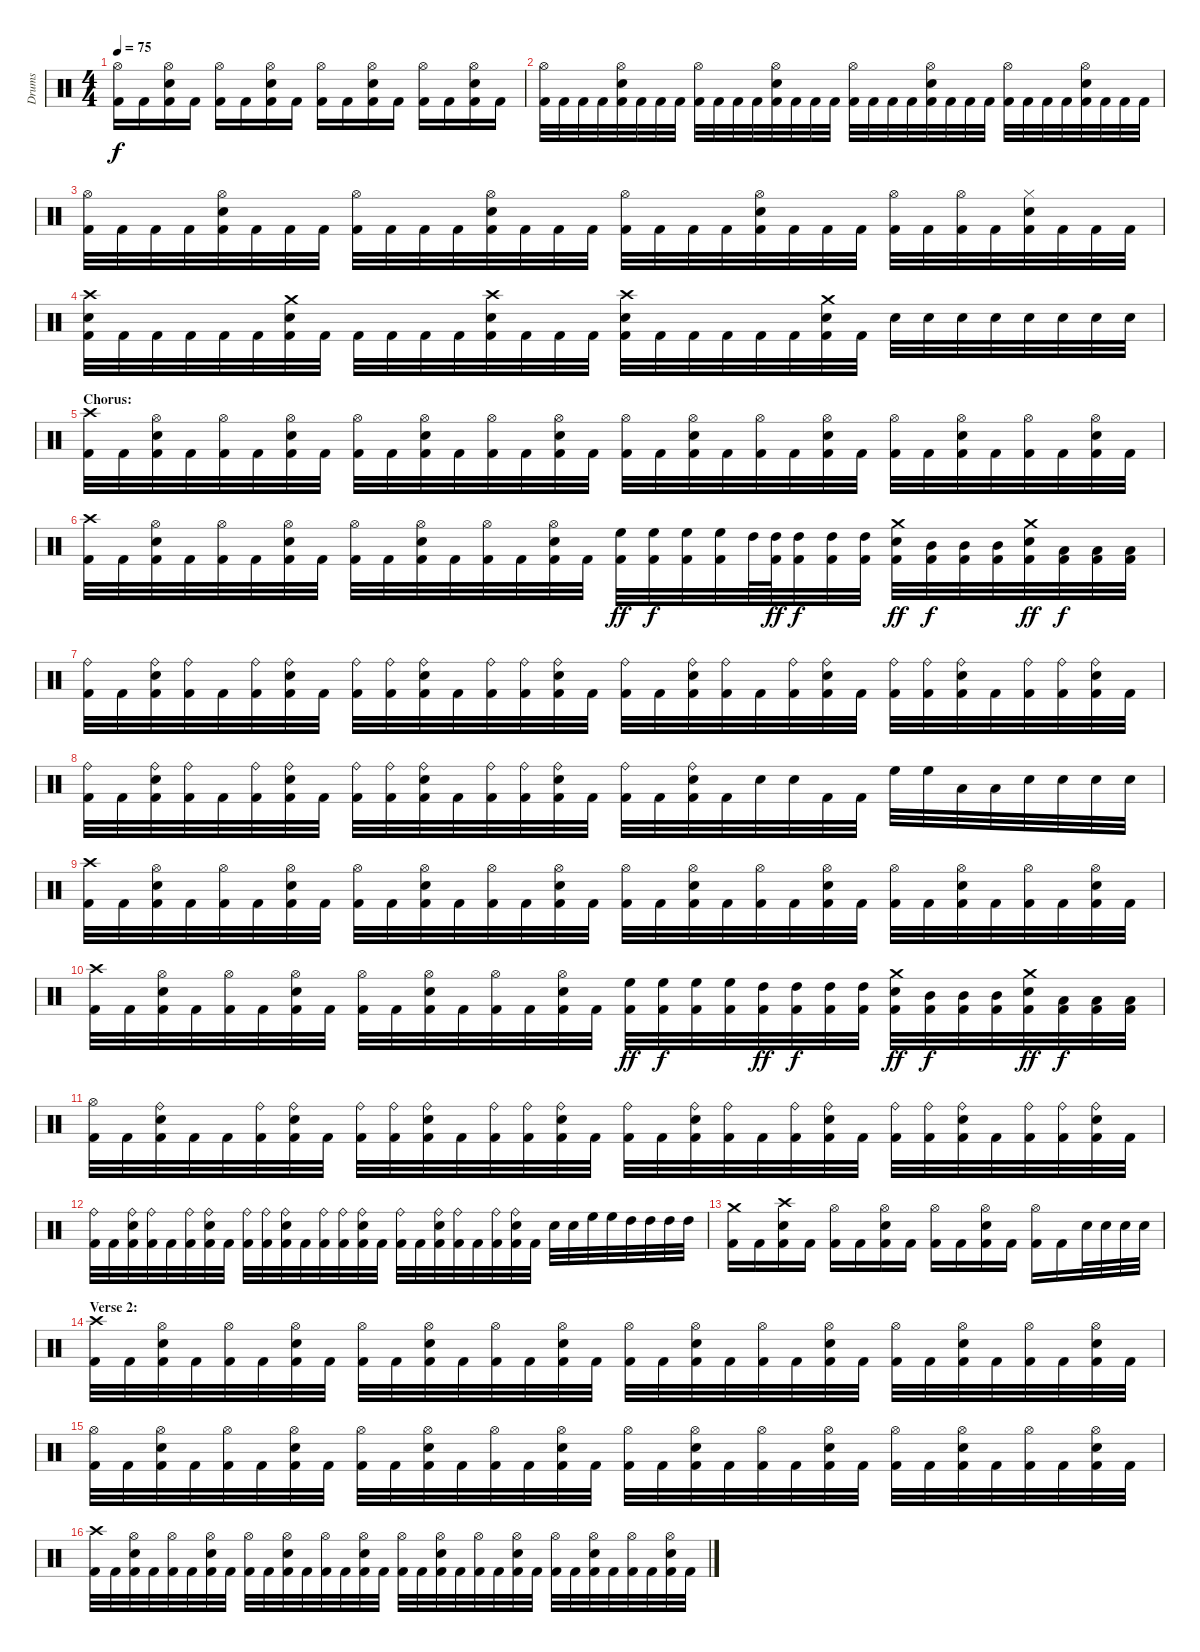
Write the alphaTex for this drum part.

\track ("Drums" "Drums") {instrument percussion}
\staff {score}
\articulation defaults
\ts (4 4)
\tempo 75
\clef neutral
\ks c
("Hi-Hat (open)" "Kick (hit) 2").16{dy f} "Kick (hit) 2".16 ("Hi-Hat (open)" "Snare (hit) 2" "Kick (hit) 2").16 "Kick (hit) 2".16 ("Hi-Hat (open)" "Kick (hit) 2").16 "Kick (hit) 2".16 ("Hi-Hat (open)" "Snare (hit) 2" "Kick (hit) 2").16 "Kick (hit) 2".16 ("Hi-Hat (open)" "Kick (hit) 2").16 "Kick (hit) 2".16 ("Hi-Hat (open)" "Snare (hit) 2" "Kick (hit) 2").16 "Kick (hit) 2".16 ("Hi-Hat (open)" "Kick (hit) 2").16 "Kick (hit) 2".16 ("Hi-Hat (open)" "Snare (hit) 2" "Kick (hit) 2").16 "Kick (hit) 2".16 |
("Hi-Hat (open)" "Kick (hit) 2").32 "Kick (hit) 2".32 "Kick (hit) 2".32 "Kick (hit) 2".32 ("Hi-Hat (open)" "Snare (hit) 2" "Kick (hit) 2").32 "Kick (hit) 2".32 "Kick (hit) 2".32 "Kick (hit) 2".32 ("Hi-Hat (open)" "Kick (hit) 2").32 "Kick (hit) 2".32 "Kick (hit) 2".32 "Kick (hit) 2".32 ("Hi-Hat (open)" "Snare (hit) 2" "Kick (hit) 2").32 "Kick (hit) 2".32 "Kick (hit) 2".32 "Kick (hit) 2".32 ("Hi-Hat (open)" "Kick (hit) 2").32 "Kick (hit) 2".32 "Kick (hit) 2".32 "Kick (hit) 2".32 ("Hi-Hat (open)" "Snare (hit) 2" "Kick (hit) 2").32 "Kick (hit) 2".32 "Kick (hit) 2".32 "Kick (hit) 2".32 ("Hi-Hat (open)" "Kick (hit) 2").32 "Kick (hit) 2".32 "Kick (hit) 2".32 "Kick (hit) 2".32 ("Hi-Hat (open)" "Snare (hit) 2" "Kick (hit) 2").32 "Kick (hit) 2".32 "Kick (hit) 2".32 "Kick (hit) 2".32 |
("Hi-Hat (open)" "Kick (hit) 2").32 "Kick (hit) 2".32 "Kick (hit) 2".32 "Kick (hit) 2".32 ("Hi-Hat (open)" "Snare (hit) 2" "Kick (hit) 2").32 "Kick (hit) 2".32 "Kick (hit) 2".32 "Kick (hit) 2".32 ("Hi-Hat (open)" "Kick (hit) 2").32 "Kick (hit) 2".32 "Kick (hit) 2".32 "Kick (hit) 2".32 ("Hi-Hat (open)" "Snare (hit) 2" "Kick (hit) 2").32 "Kick (hit) 2".32 "Kick (hit) 2".32 "Kick (hit) 2".32 ("Hi-Hat (open)" "Kick (hit) 2").32 "Kick (hit) 2".32 "Kick (hit) 2".32 "Kick (hit) 2".32 ("Hi-Hat (open)" "Snare (hit) 2" "Kick (hit) 2").32 "Kick (hit) 2".32 "Kick (hit) 2".32 "Kick (hit) 2".32 ("Hi-Hat (open)" "Kick (hit) 2").32 "Kick (hit) 2".32 ("Hi-Hat (open)" "Kick (hit) 2").32 "Kick (hit) 2".32 ("Hi-Hat (closed)" "Snare (hit) 2" "Kick (hit) 2").32 "Kick (hit) 2".32 "Kick (hit) 2".32 "Kick (hit) 2".32 |
("Crash high (hit)" "Snare (hit) 2" "Kick (hit) 2").32 "Kick (hit) 2".32 "Kick (hit) 2".32 "Kick (hit) 2".32 "Kick (hit) 2".32 "Kick (hit) 2".32 ("Crash medium (hit)" "Snare (hit) 2" "Kick (hit) 2").32 "Kick (hit) 2".32 "Kick (hit) 2".32 "Kick (hit) 2".32 "Kick (hit) 2".32 "Kick (hit) 2".32 ("Crash high (hit)" "Snare (hit) 2" "Kick (hit) 2").32 "Kick (hit) 2".32 "Kick (hit) 2".32 "Kick (hit) 2".32 ("Crash high (hit)" "Snare (hit) 2" "Kick (hit) 2").32 "Kick (hit) 2".32 "Kick (hit) 2".32 "Kick (hit) 2".32 "Kick (hit) 2".32 "Kick (hit) 2".32 ("Crash medium (hit)" "Snare (hit) 2" "Kick (hit) 2").32 "Kick (hit) 2".32 "Snare (hit) 2".32 "Snare (hit) 2".32 "Snare (hit) 2".32 "Snare (hit) 2".32 "Snare (hit) 2".32 "Snare (hit) 2".32 "Snare (hit) 2".32 "Snare (hit) 2".32 |
\section ("" "Chorus:")
("Crash high (hit)" "Kick (hit) 2").32 "Kick (hit) 2".32 ("Hi-Hat (open)" "Snare (hit) 2" "Kick (hit) 2").32 "Kick (hit) 2".32 ("Hi-Hat (open)" "Kick (hit) 2").32 "Kick (hit) 2".32 ("Hi-Hat (open)" "Snare (hit) 2" "Kick (hit) 2").32 "Kick (hit) 2".32 ("Hi-Hat (open)" "Kick (hit) 2").32 "Kick (hit) 2".32 ("Hi-Hat (open)" "Snare (hit) 2" "Kick (hit) 2").32 "Kick (hit) 2".32 ("Hi-Hat (open)" "Kick (hit) 2").32 "Kick (hit) 2".32 ("Hi-Hat (open)" "Snare (hit) 2" "Kick (hit) 2").32 "Kick (hit) 2".32 ("Hi-Hat (open)" "Kick (hit) 2").32 "Kick (hit) 2".32 ("Hi-Hat (open)" "Snare (hit) 2" "Kick (hit) 2").32 "Kick (hit) 2".32 ("Hi-Hat (open)" "Kick (hit) 2").32 "Kick (hit) 2".32 ("Hi-Hat (open)" "Snare (hit) 2" "Kick (hit) 2").32 "Kick (hit) 2".32 ("Hi-Hat (open)" "Kick (hit) 2").32 "Kick (hit) 2".32 ("Hi-Hat (open)" "Snare (hit) 2" "Kick (hit) 2").32 "Kick (hit) 2".32 ("Hi-Hat (open)" "Kick (hit) 2").32 "Kick (hit) 2".32 ("Hi-Hat (open)" "Snare (hit) 2" "Kick (hit) 2").32 "Kick (hit) 2".32 |
("Crash high (hit)" "Kick (hit) 2").32 "Kick (hit) 2".32 ("Hi-Hat (open)" "Snare (hit) 2" "Kick (hit) 2").32 "Kick (hit) 2".32 ("Hi-Hat (open)" "Kick (hit) 2").32 "Kick (hit) 2".32 ("Hi-Hat (open)" "Snare (hit) 2" "Kick (hit) 2").32 "Kick (hit) 2".32 ("Hi-Hat (open)" "Kick (hit) 2").32 "Kick (hit) 2".32 ("Hi-Hat (open)" "Snare (hit) 2" "Kick (hit) 2").32 "Kick (hit) 2".32 ("Hi-Hat (open)" "Kick (hit) 2").32 "Kick (hit) 2".32 ("Hi-Hat (open)" "Snare (hit) 2" "Kick (hit) 2").32 "Kick (hit) 2".32 ("High Floor Tom (hit)" "Kick (hit) 2").32{dy ff} ("High Floor Tom (hit)" "Kick (hit) 2").32{dy f} ("High Floor Tom (hit)" "Kick (hit) 2").32 ("High Floor Tom (hit)" "Kick (hit) 2").32 "High Tom (hit)".64 ("High Tom (hit)" "Kick (hit) 2").64{dy ff} ("High Tom (hit)" "Kick (hit) 2").32{dy f} ("High Tom (hit)" "Kick (hit) 2").32 ("High Tom (hit)" "Kick (hit) 2").32 ("Crash medium (hit)" "Snare (hit) 2" "Kick (hit) 2").32{dy ff} ("Mid Tom (hit)" "Kick (hit) 2").32{dy f} ("Mid Tom (hit)" "Kick (hit) 2").32 ("Mid Tom (hit)" "Kick (hit) 2").32 ("Crash medium (hit)" "Snare (hit) 2" "Kick (hit) 2").32{dy ff} ("Low Tom (hit)" "Kick (hit) 2").32{dy f} ("Low Tom (hit)" "Kick (hit) 2").32 ("Low Tom (hit)" "Kick (hit) 2").32 |
("Ride (bell)" "Kick (hit) 2").32 "Kick (hit) 2".32 ("Ride (bell)" "Snare (hit) 2" "Kick (hit) 2").32 ("Ride (bell)" "Kick (hit) 2").32 "Kick (hit) 2".32 ("Ride (bell)" "Kick (hit) 2").32 ("Ride (bell)" "Snare (hit) 2" "Kick (hit) 2").32 "Kick (hit) 2".32 ("Ride (bell)" "Kick (hit) 2").32 ("Ride (bell)" "Kick (hit) 2").32 ("Ride (bell)" "Snare (hit) 2" "Kick (hit) 2").32 "Kick (hit) 2".32 ("Ride (bell)" "Kick (hit) 2").32 ("Ride (bell)" "Kick (hit) 2").32 ("Ride (bell)" "Snare (hit) 2" "Kick (hit) 2").32 "Kick (hit) 2".32 ("Ride (bell)" "Kick (hit) 2").32 "Kick (hit) 2".32 ("Ride (bell)" "Snare (hit) 2" "Kick (hit) 2").32 ("Ride (bell)" "Kick (hit) 2").32 "Kick (hit) 2".32 ("Ride (bell)" "Kick (hit) 2").32 ("Ride (bell)" "Snare (hit) 2" "Kick (hit) 2").32 "Kick (hit) 2".32 ("Ride (bell)" "Kick (hit) 2").32 ("Ride (bell)" "Kick (hit) 2").32 ("Ride (bell)" "Snare (hit) 2" "Kick (hit) 2").32 "Kick (hit) 2".32 ("Ride (bell)" "Kick (hit) 2").32 ("Ride (bell)" "Kick (hit) 2").32 ("Ride (bell)" "Snare (hit) 2" "Kick (hit) 2").32 "Kick (hit) 2".32 |
("Ride (bell)" "Kick (hit) 2").32 "Kick (hit) 2".32 ("Ride (bell)" "Snare (hit) 2" "Kick (hit) 2").32 ("Ride (bell)" "Kick (hit) 2").32 "Kick (hit) 2".32 ("Ride (bell)" "Kick (hit) 2").32 ("Ride (bell)" "Snare (hit) 2" "Kick (hit) 2").32 "Kick (hit) 2".32 ("Ride (bell)" "Kick (hit) 2").32 ("Ride (bell)" "Kick (hit) 2").32 ("Ride (bell)" "Snare (hit) 2" "Kick (hit) 2").32 "Kick (hit) 2".32 ("Ride (bell)" "Kick (hit) 2").32 ("Ride (bell)" "Kick (hit) 2").32 ("Ride (bell)" "Snare (hit) 2" "Kick (hit) 2").32 "Kick (hit) 2".32 ("Ride (bell)" "Kick (hit) 2").32 "Kick (hit) 2".32 ("Ride (bell)" "Snare (hit) 2" "Kick (hit) 2").32 "Kick (hit) 2".32 "Snare (hit) 2".32 "Snare (hit) 2".32 "Kick (hit) 2".32 "Kick (hit) 2".32 "High Floor Tom (hit)".32 "High Floor Tom (hit)".32 "Low Tom (hit)".32 "Low Tom (hit)".32 "Snare (hit) 2".32 "Snare (hit) 2".32 "Snare (hit) 2".32 "Snare (hit) 2".32 |
("Crash high (hit)" "Kick (hit) 2").32 "Kick (hit) 2".32 ("Hi-Hat (open)" "Snare (hit) 2" "Kick (hit) 2").32 "Kick (hit) 2".32 ("Hi-Hat (open)" "Kick (hit) 2").32 "Kick (hit) 2".32 ("Hi-Hat (open)" "Snare (hit) 2" "Kick (hit) 2").32 "Kick (hit) 2".32 ("Hi-Hat (open)" "Kick (hit) 2").32 "Kick (hit) 2".32 ("Hi-Hat (open)" "Snare (hit) 2" "Kick (hit) 2").32 "Kick (hit) 2".32 ("Hi-Hat (open)" "Kick (hit) 2").32 "Kick (hit) 2".32 ("Hi-Hat (open)" "Snare (hit) 2" "Kick (hit) 2").32 "Kick (hit) 2".32 ("Hi-Hat (open)" "Kick (hit) 2").32 "Kick (hit) 2".32 ("Hi-Hat (open)" "Snare (hit) 2" "Kick (hit) 2").32 "Kick (hit) 2".32 ("Hi-Hat (open)" "Kick (hit) 2").32 "Kick (hit) 2".32 ("Hi-Hat (open)" "Snare (hit) 2" "Kick (hit) 2").32 "Kick (hit) 2".32 ("Hi-Hat (open)" "Kick (hit) 2").32 "Kick (hit) 2".32 ("Hi-Hat (open)" "Snare (hit) 2" "Kick (hit) 2").32 "Kick (hit) 2".32 ("Hi-Hat (open)" "Kick (hit) 2").32 "Kick (hit) 2".32 ("Hi-Hat (open)" "Snare (hit) 2" "Kick (hit) 2").32 "Kick (hit) 2".32 |
("Crash high (hit)" "Kick (hit) 2").32 "Kick (hit) 2".32 ("Hi-Hat (open)" "Snare (hit) 2" "Kick (hit) 2").32 "Kick (hit) 2".32 ("Hi-Hat (open)" "Kick (hit) 2").32 "Kick (hit) 2".32 ("Hi-Hat (open)" "Snare (hit) 2" "Kick (hit) 2").32 "Kick (hit) 2".32 ("Hi-Hat (open)" "Kick (hit) 2").32 "Kick (hit) 2".32 ("Hi-Hat (open)" "Snare (hit) 2" "Kick (hit) 2").32 "Kick (hit) 2".32 ("Hi-Hat (open)" "Kick (hit) 2").32 "Kick (hit) 2".32 ("Hi-Hat (open)" "Snare (hit) 2" "Kick (hit) 2").32 "Kick (hit) 2".32 ("High Floor Tom (hit)" "Kick (hit) 2").32{dy ff} ("High Floor Tom (hit)" "Kick (hit) 2").32{dy f} ("High Floor Tom (hit)" "Kick (hit) 2").32 ("High Floor Tom (hit)" "Kick (hit) 2").32 ("High Tom (hit)" "Kick (hit) 2").32{dy ff} ("High Tom (hit)" "Kick (hit) 2").32{dy f} ("High Tom (hit)" "Kick (hit) 2").32 ("High Tom (hit)" "Kick (hit) 2").32 ("Crash medium (hit)" "Snare (hit) 2" "Kick (hit) 2").32{dy ff} ("Mid Tom (hit)" "Kick (hit) 2").32{dy f} ("Mid Tom (hit)" "Kick (hit) 2").32 ("Mid Tom (hit)" "Kick (hit) 2").32 ("Crash medium (hit)" "Snare (hit) 2" "Kick (hit) 2").32{dy ff} ("Low Tom (hit)" "Kick (hit) 2").32{dy f} ("Low Tom (hit)" "Kick (hit) 2").32 ("Low Tom (hit)" "Kick (hit) 2").32 |
("Hi-Hat (open)" "Kick (hit) 2").32 "Kick (hit) 2".32 ("Ride (bell)" "Snare (hit) 2" "Kick (hit) 2").32 "Kick (hit) 2".32 "Kick (hit) 2".32 ("Ride (bell)" "Kick (hit) 2").32 ("Ride (bell)" "Snare (hit) 2" "Kick (hit) 2").32 "Kick (hit) 2".32 ("Ride (bell)" "Kick (hit) 2").32 ("Ride (bell)" "Kick (hit) 2").32 ("Ride (bell)" "Snare (hit) 2" "Kick (hit) 2").32 "Kick (hit) 2".32 ("Ride (bell)" "Kick (hit) 2").32 ("Ride (bell)" "Kick (hit) 2").32 ("Ride (bell)" "Snare (hit) 2" "Kick (hit) 2").32 "Kick (hit) 2".32 ("Ride (bell)" "Kick (hit) 2").32 "Kick (hit) 2".32 ("Ride (bell)" "Snare (hit) 2" "Kick (hit) 2").32 ("Ride (bell)" "Kick (hit) 2").32 "Kick (hit) 2".32 ("Ride (bell)" "Kick (hit) 2").32 ("Ride (bell)" "Snare (hit) 2" "Kick (hit) 2").32 "Kick (hit) 2".32 ("Ride (bell)" "Kick (hit) 2").32 ("Ride (bell)" "Kick (hit) 2").32 ("Ride (bell)" "Snare (hit) 2" "Kick (hit) 2").32 "Kick (hit) 2".32 ("Ride (bell)" "Kick (hit) 2").32 ("Ride (bell)" "Kick (hit) 2").32 ("Ride (bell)" "Snare (hit) 2" "Kick (hit) 2").32 "Kick (hit) 2".32 |
("Ride (bell)" "Kick (hit) 2").32 "Kick (hit) 2".32 ("Ride (bell)" "Snare (hit) 2" "Kick (hit) 2").32 ("Ride (bell)" "Kick (hit) 2").32 "Kick (hit) 2".32 ("Ride (bell)" "Kick (hit) 2").32 ("Ride (bell)" "Snare (hit) 2" "Kick (hit) 2").32 "Kick (hit) 2".32 ("Ride (bell)" "Kick (hit) 2").32 ("Ride (bell)" "Kick (hit) 2").32 ("Ride (bell)" "Snare (hit) 2" "Kick (hit) 2").32 "Kick (hit) 2".32 ("Ride (bell)" "Kick (hit) 2").32 ("Ride (bell)" "Kick (hit) 2").32 ("Ride (bell)" "Snare (hit) 2" "Kick (hit) 2").32 "Kick (hit) 2".32 ("Ride (bell)" "Kick (hit) 2").32 "Kick (hit) 2".32 ("Ride (bell)" "Snare (hit) 2" "Kick (hit) 2").32 ("Ride (bell)" "Kick (hit) 2").32 "Kick (hit) 2".32 ("Ride (bell)" "Kick (hit) 2").32 ("Ride (bell)" "Snare (hit) 2" "Kick (hit) 2").32 "Kick (hit) 2".32 "Snare (hit) 2".32 "Snare (hit) 2".32 "High Floor Tom (hit)".32 "High Floor Tom (hit)".32 "High Tom (hit)".32 "High Tom (hit)".32 "High Tom (hit)".32 "High Tom (hit)".32 |
("Crash medium (hit)" "Kick (hit) 2").16 "Kick (hit) 2".16 ("Crash high (hit)" "Snare (hit) 2" "Kick (hit) 2").16 "Kick (hit) 2".16 ("Hi-Hat (open)" "Kick (hit) 2").16 "Kick (hit) 2".16 ("Hi-Hat (open)" "Snare (hit) 2" "Kick (hit) 2").16 "Kick (hit) 2".16 ("Hi-Hat (open)" "Kick (hit) 2").16 "Kick (hit) 2".16 ("Hi-Hat (open)" "Snare (hit) 2" "Kick (hit) 2").16 "Kick (hit) 2".16 ("Hi-Hat (open)" "Kick (hit) 2").16 "Kick (hit) 2".16 "Snare (hit) 2".32 "Snare (hit) 2".32 "Snare (hit) 2".32 "Snare (hit) 2".32 |
\section ("" "Verse 2:")
("Crash high (hit)" "Kick (hit) 2").32 "Kick (hit) 2".32 ("Hi-Hat (open)" "Snare (hit) 2" "Kick (hit) 2").32 "Kick (hit) 2".32 ("Hi-Hat (open)" "Kick (hit) 2").32 "Kick (hit) 2".32 ("Hi-Hat (open)" "Snare (hit) 2" "Kick (hit) 2").32 "Kick (hit) 2".32 ("Hi-Hat (open)" "Kick (hit) 2").32 "Kick (hit) 2".32 ("Hi-Hat (open)" "Snare (hit) 2" "Kick (hit) 2").32 "Kick (hit) 2".32 ("Hi-Hat (open)" "Kick (hit) 2").32 "Kick (hit) 2".32 ("Hi-Hat (open)" "Snare (hit) 2" "Kick (hit) 2").32 "Kick (hit) 2".32 ("Hi-Hat (open)" "Kick (hit) 2").32 "Kick (hit) 2".32 ("Hi-Hat (open)" "Snare (hit) 2" "Kick (hit) 2").32 "Kick (hit) 2".32 ("Hi-Hat (open)" "Kick (hit) 2").32 "Kick (hit) 2".32 ("Hi-Hat (open)" "Snare (hit) 2" "Kick (hit) 2").32 "Kick (hit) 2".32 ("Hi-Hat (open)" "Kick (hit) 2").32 "Kick (hit) 2".32 ("Hi-Hat (open)" "Snare (hit) 2" "Kick (hit) 2").32 "Kick (hit) 2".32 ("Hi-Hat (open)" "Kick (hit) 2").32 "Kick (hit) 2".32 ("Hi-Hat (open)" "Snare (hit) 2" "Kick (hit) 2").32 "Kick (hit) 2".32 |
("Hi-Hat (open)" "Kick (hit) 2").32 "Kick (hit) 2".32 ("Hi-Hat (open)" "Snare (hit) 2" "Kick (hit) 2").32 "Kick (hit) 2".32 ("Hi-Hat (open)" "Kick (hit) 2").32 "Kick (hit) 2".32 ("Hi-Hat (open)" "Snare (hit) 2" "Kick (hit) 2").32 "Kick (hit) 2".32 ("Hi-Hat (open)" "Kick (hit) 2").32 "Kick (hit) 2".32 ("Hi-Hat (open)" "Snare (hit) 2" "Kick (hit) 2").32 "Kick (hit) 2".32 ("Hi-Hat (open)" "Kick (hit) 2").32 "Kick (hit) 2".32 ("Hi-Hat (open)" "Snare (hit) 2" "Kick (hit) 2").32 "Kick (hit) 2".32 ("Hi-Hat (open)" "Kick (hit) 2").32 "Kick (hit) 2".32 ("Hi-Hat (open)" "Snare (hit) 2" "Kick (hit) 2").32 "Kick (hit) 2".32 ("Hi-Hat (open)" "Kick (hit) 2").32 "Kick (hit) 2".32 ("Hi-Hat (open)" "Snare (hit) 2" "Kick (hit) 2").32 "Kick (hit) 2".32 ("Hi-Hat (open)" "Kick (hit) 2").32 "Kick (hit) 2".32 ("Hi-Hat (open)" "Snare (hit) 2" "Kick (hit) 2").32 "Kick (hit) 2".32 ("Hi-Hat (open)" "Kick (hit) 2").32 "Kick (hit) 2".32 ("Hi-Hat (open)" "Snare (hit) 2" "Kick (hit) 2").32 "Kick (hit) 2".32 |
("Crash high (hit)" "Kick (hit) 2").32 "Kick (hit) 2".32 ("Hi-Hat (open)" "Snare (hit) 2" "Kick (hit) 2").32 "Kick (hit) 2".32 ("Hi-Hat (open)" "Kick (hit) 2").32 "Kick (hit) 2".32 ("Hi-Hat (open)" "Snare (hit) 2" "Kick (hit) 2").32 "Kick (hit) 2".32 ("Hi-Hat (open)" "Kick (hit) 2").32 "Kick (hit) 2".32 ("Hi-Hat (open)" "Snare (hit) 2" "Kick (hit) 2").32 "Kick (hit) 2".32 ("Hi-Hat (open)" "Kick (hit) 2").32 "Kick (hit) 2".32 ("Hi-Hat (open)" "Snare (hit) 2" "Kick (hit) 2").32 "Kick (hit) 2".32 ("Hi-Hat (open)" "Kick (hit) 2").32 "Kick (hit) 2".32 ("Hi-Hat (open)" "Snare (hit) 2" "Kick (hit) 2").32 "Kick (hit) 2".32 ("Hi-Hat (open)" "Kick (hit) 2").32 "Kick (hit) 2".32 ("Hi-Hat (open)" "Snare (hit) 2" "Kick (hit) 2").32 "Kick (hit) 2".32 ("Hi-Hat (open)" "Kick (hit) 2").32 "Kick (hit) 2".32 ("Hi-Hat (open)" "Snare (hit) 2" "Kick (hit) 2").32 "Kick (hit) 2".32 ("Hi-Hat (open)" "Kick (hit) 2").32 "Kick (hit) 2".32 ("Hi-Hat (open)" "Snare (hit) 2" "Kick (hit) 2").32 "Kick (hit) 2".32
